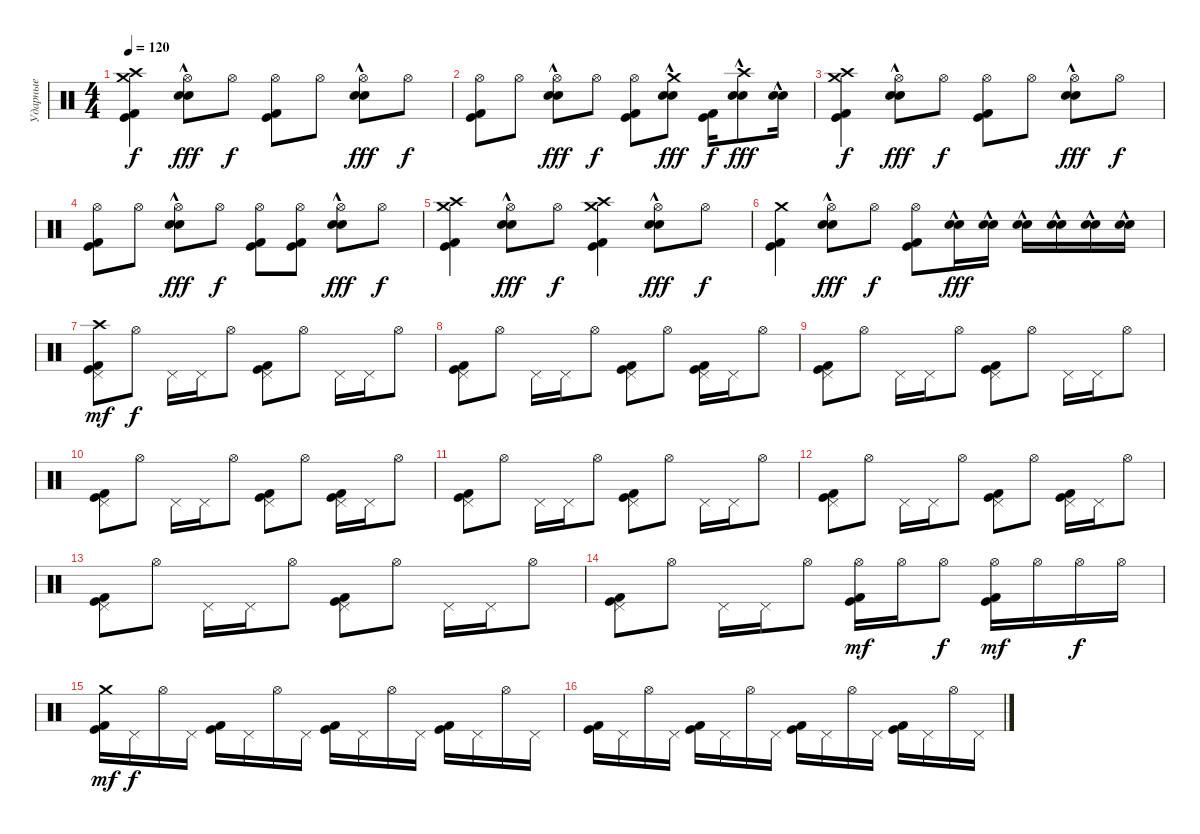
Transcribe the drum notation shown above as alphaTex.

\track ("Ударные" "Ударные") {instrument percussion}
\staff {score}
\articulation defaults
\ts (4 4)
\tempo 120
\clef neutral
\ks c
("Crash high (hit)" "Kick (hit)" "Kick (hit) 2" "Crash medium (hit)").4{dy f} ("Hi-Hat (open)" "Snare (hit) 2"{hac} "Electric Snare (hit)"{hac}).8{dy fff} "Hi-Hat (open)".8{dy f} ("Hi-Hat (open)" "Kick (hit)" "Kick (hit) 2").8 "Hi-Hat (open)".8 ("Hi-Hat (open)" "Snare (hit) 2"{hac} "Electric Snare (hit)"{hac}).8{dy fff} "Hi-Hat (open)".8{dy f} |
("Hi-Hat (open)" "Kick (hit)" "Kick (hit) 2").8 "Hi-Hat (open)".8 ("Hi-Hat (open)" "Snare (hit) 2"{hac} "Electric Snare (hit)"{hac}).8{dy fff} "Hi-Hat (open)".8{dy f} ("Hi-Hat (open)" "Kick (hit)" "Kick (hit) 2").8 ("Crash medium (hit)" "Snare (hit) 2"{hac} "Electric Snare (hit)"{hac}).8{dy fff} ("Kick (hit)" "Kick (hit) 2").16{dy f} ("Crash high (hit)" "Snare (hit) 2"{hac} "Electric Snare (hit)"{hac}).8{dy fff} ("Snare (hit) 2"{hac} "Electric Snare (hit)"{hac}).16 |
("Crash high (hit)" "Kick (hit)" "Kick (hit) 2" "Crash medium (hit)").4{dy f} ("Hi-Hat (open)" "Snare (hit) 2"{hac} "Electric Snare (hit)"{hac}).8{dy fff} "Hi-Hat (open)".8{dy f} ("Hi-Hat (open)" "Kick (hit)" "Kick (hit) 2").8 "Hi-Hat (open)".8 ("Hi-Hat (open)" "Snare (hit) 2"{hac} "Electric Snare (hit)"{hac}).8{dy fff} "Hi-Hat (open)".8{dy f} |
("Hi-Hat (open)" "Kick (hit)" "Kick (hit) 2").8 "Hi-Hat (open)".8 ("Hi-Hat (open)" "Snare (hit) 2"{hac} "Electric Snare (hit)"{hac}).8{dy fff} "Hi-Hat (open)".8{dy f} ("Hi-Hat (open)" "Kick (hit)" "Kick (hit) 2").8 ("Hi-Hat (open)" "Kick (hit)" "Kick (hit) 2").8 ("Hi-Hat (open)" "Snare (hit) 2"{hac} "Electric Snare (hit)"{hac}).8{dy fff} "Hi-Hat (open)".8{dy f} |
("Crash high (hit)" "Kick (hit)" "Kick (hit) 2" "Crash medium (hit)").4 ("Hi-Hat (open)" "Snare (hit) 2"{hac} "Electric Snare (hit)"{hac}).8{dy fff} "Hi-Hat (open)".8{dy f} ("Crash high (hit)" "Kick (hit)" "Kick (hit) 2" "Crash medium (hit)").4 ("Hi-Hat (open)" "Snare (hit) 2"{hac} "Electric Snare (hit)"{hac}).8{dy fff} "Hi-Hat (open)".8{dy f} |
("Crash medium (hit)" "Kick (hit)" "Kick (hit) 2").4 ("Hi-Hat (open)" "Snare (hit) 2"{hac} "Electric Snare (hit)"{hac}).8{dy fff} "Hi-Hat (open)".8{dy f} ("Hi-Hat (open)" "Kick (hit)" "Kick (hit) 2").8 ("Snare (hit) 2"{hac} "Electric Snare (hit)"{hac}).16{dy fff} ("Snare (hit) 2"{hac} "Electric Snare (hit)"{hac}).16 ("Snare (hit) 2"{hac} "Electric Snare (hit)"{hac}).16 ("Snare (hit) 2"{hac} "Electric Snare (hit)"{hac}).16 ("Snare (hit) 2"{hac} "Electric Snare (hit)"{hac}).16 ("Snare (hit) 2"{hac} "Electric Snare (hit)"{hac}).16 |
("Pedal Hi-Hat (hit)" "Kick (hit)" "Kick (hit) 2" "Crash high (hit)").8{dy mf} "Hi-Hat (open)".8{dy f} "Pedal Hi-Hat (hit)".16 "Pedal Hi-Hat (hit)".16 "Hi-Hat (open)".8 ("Pedal Hi-Hat (hit)" "Kick (hit)" "Kick (hit) 2").8 "Hi-Hat (open)".8 "Pedal Hi-Hat (hit)".16 "Pedal Hi-Hat (hit)".16 "Hi-Hat (open)".8 |
("Pedal Hi-Hat (hit)" "Kick (hit)" "Kick (hit) 2").8 "Hi-Hat (open)".8 "Pedal Hi-Hat (hit)".16 "Pedal Hi-Hat (hit)".16 "Hi-Hat (open)".8 ("Pedal Hi-Hat (hit)" "Kick (hit)" "Kick (hit) 2").8 "Hi-Hat (open)".8 ("Pedal Hi-Hat (hit)" "Kick (hit)" "Kick (hit) 2").16 "Pedal Hi-Hat (hit)".16 "Hi-Hat (open)".8 |
("Pedal Hi-Hat (hit)" "Kick (hit)" "Kick (hit) 2").8 "Hi-Hat (open)".8 "Pedal Hi-Hat (hit)".16 "Pedal Hi-Hat (hit)".16 "Hi-Hat (open)".8 ("Pedal Hi-Hat (hit)" "Kick (hit)" "Kick (hit) 2").8 "Hi-Hat (open)".8 "Pedal Hi-Hat (hit)".16 "Pedal Hi-Hat (hit)".16 "Hi-Hat (open)".8 |
("Pedal Hi-Hat (hit)" "Kick (hit)" "Kick (hit) 2").8 "Hi-Hat (open)".8 "Pedal Hi-Hat (hit)".16 "Pedal Hi-Hat (hit)".16 "Hi-Hat (open)".8 ("Pedal Hi-Hat (hit)" "Kick (hit)" "Kick (hit) 2").8 "Hi-Hat (open)".8 ("Pedal Hi-Hat (hit)" "Kick (hit)" "Kick (hit) 2").16 "Pedal Hi-Hat (hit)".16 "Hi-Hat (open)".8 |
("Pedal Hi-Hat (hit)" "Kick (hit)" "Kick (hit) 2").8 "Hi-Hat (open)".8 "Pedal Hi-Hat (hit)".16 "Pedal Hi-Hat (hit)".16 "Hi-Hat (open)".8 ("Pedal Hi-Hat (hit)" "Kick (hit)" "Kick (hit) 2").8 "Hi-Hat (open)".8 "Pedal Hi-Hat (hit)".16 "Pedal Hi-Hat (hit)".16 "Hi-Hat (open)".8 |
("Pedal Hi-Hat (hit)" "Kick (hit)" "Kick (hit) 2").8 "Hi-Hat (open)".8 "Pedal Hi-Hat (hit)".16 "Pedal Hi-Hat (hit)".16 "Hi-Hat (open)".8 ("Pedal Hi-Hat (hit)" "Kick (hit)" "Kick (hit) 2").8 "Hi-Hat (open)".8 ("Pedal Hi-Hat (hit)" "Kick (hit)" "Kick (hit) 2").16 "Pedal Hi-Hat (hit)".16 "Hi-Hat (open)".8 |
("Pedal Hi-Hat (hit)" "Kick (hit)" "Kick (hit) 2").8 "Hi-Hat (open)".8 "Pedal Hi-Hat (hit)".16 "Pedal Hi-Hat (hit)".16 "Hi-Hat (open)".8 ("Pedal Hi-Hat (hit)" "Kick (hit)" "Kick (hit) 2").8 "Hi-Hat (open)".8 "Pedal Hi-Hat (hit)".16 "Pedal Hi-Hat (hit)".16 "Hi-Hat (open)".8 |
("Pedal Hi-Hat (hit)" "Kick (hit)" "Kick (hit) 2").8 "Hi-Hat (open)".8 "Pedal Hi-Hat (hit)".16 "Pedal Hi-Hat (hit)".16 "Hi-Hat (open)".8 ("Hi-Hat (open)" "Kick (hit)" "Kick (hit) 2").16{dy mf} "Hi-Hat (open)".16 "Hi-Hat (open)".8{dy f} ("Hi-Hat (open)" "Kick (hit)" "Kick (hit) 2").16{dy mf} "Hi-Hat (open)".16 "Hi-Hat (open)".16{dy f} "Hi-Hat (open)".16 |
("Kick (hit)" "Kick (hit) 2" "Crash medium (hit)").16{dy mf} "Pedal Hi-Hat (hit)".16{dy f} "Hi-Hat (open)".16 "Pedal Hi-Hat (hit)".16 ("Kick (hit)" "Kick (hit) 2").16 "Pedal Hi-Hat (hit)".16 "Hi-Hat (open)".16 "Pedal Hi-Hat (hit)".16 ("Kick (hit)" "Kick (hit) 2").16 "Pedal Hi-Hat (hit)".16 "Hi-Hat (open)".16 "Pedal Hi-Hat (hit)".16 ("Kick (hit)" "Kick (hit) 2").16 "Pedal Hi-Hat (hit)".16 "Hi-Hat (open)".16 "Pedal Hi-Hat (hit)".16 |
("Kick (hit)" "Kick (hit) 2").16 "Pedal Hi-Hat (hit)".16 "Hi-Hat (open)".16 "Pedal Hi-Hat (hit)".16 ("Kick (hit)" "Kick (hit) 2").16 "Pedal Hi-Hat (hit)".16 "Hi-Hat (open)".16 "Pedal Hi-Hat (hit)".16 ("Kick (hit)" "Kick (hit) 2").16 "Pedal Hi-Hat (hit)".16 "Hi-Hat (open)".16 "Pedal Hi-Hat (hit)".16 ("Kick (hit)" "Kick (hit) 2").16 "Pedal Hi-Hat (hit)".16 "Hi-Hat (open)".16 "Pedal Hi-Hat (hit)".16
